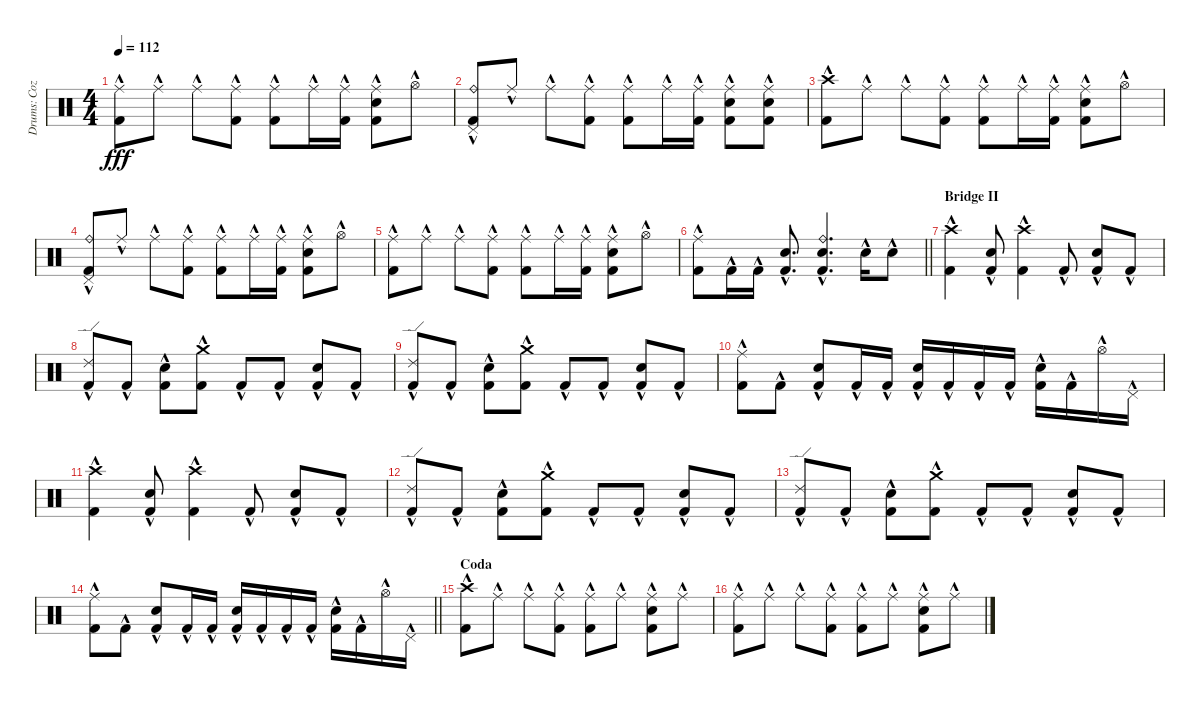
\track ("Drums: Cozy" "Drums: Coz") {instrument percussion}
\staff {score}
\articulation defaults
\ts (4 4)
\tempo 112
\clef neutral
\ks c
("Ride (middle)"{hac} "Kick (hit) 2"{hac}).8{dy fff} "Ride (middle)"{hac}.8 "Ride (middle)"{hac}.8 ("Ride (middle)"{hac} "Kick (hit) 2"{hac}).8 ("Ride (middle)"{hac} "Kick (hit) 2"{hac}).8 "Ride (middle)"{hac}.16 ("Ride (middle)"{hac} "Kick (hit) 2"{hac}).16 ("Ride (middle)"{hac} "Electric Snare (hit)"{hac} "Kick (hit) 2"{hac}).8 "Hi-Hat (open)"{hac}.8 |
("Ride (bell)"{hac} "Pedal Hi-Hat (hit)"{hac} "Kick (hit) 2"{hac}).8 "Ride (middle)"{hac}.8 "Ride (middle)"{hac}.8 ("Ride (middle)"{hac} "Kick (hit) 2"{hac}).8 ("Ride (middle)"{hac} "Kick (hit) 2"{hac}).8 "Ride (middle)"{hac}.16 ("Ride (middle)"{hac} "Kick (hit) 2"{hac}).16 ("Ride (middle)"{hac} "Electric Snare (hit)"{hac} "Kick (hit) 2"{hac}).8 ("Ride (middle)"{hac} "Electric Snare (hit)"{hac} "Kick (hit) 2"{hac}).8 |
("Crash high (hit)"{hac} "Kick (hit) 2"{hac}).8 "Ride (middle)"{hac}.8 "Ride (middle)"{hac}.8 ("Ride (middle)"{hac} "Kick (hit) 2"{hac}).8 ("Ride (middle)"{hac} "Kick (hit) 2"{hac}).8 "Ride (middle)"{hac}.16 ("Ride (middle)"{hac} "Kick (hit) 2"{hac}).16 ("Ride (middle)"{hac} "Electric Snare (hit)"{hac} "Kick (hit) 2"{hac}).8 "Hi-Hat (open)"{hac}.8 |
("Ride (bell)"{hac} "Pedal Hi-Hat (hit)"{hac} "Kick (hit) 2"{hac}).8 "Ride (middle)"{hac}.8 "Ride (middle)"{hac}.8 ("Ride (middle)"{hac} "Kick (hit) 2"{hac}).8 ("Ride (middle)"{hac} "Kick (hit) 2"{hac}).8 "Ride (middle)"{hac}.16 ("Ride (middle)"{hac} "Kick (hit) 2"{hac}).16 ("Ride (middle)"{hac} "Electric Snare (hit)"{hac} "Kick (hit) 2"{hac}).8 "Hi-Hat (open)"{hac}.8 |
("Ride (middle)"{hac} "Kick (hit) 2"{hac}).8 "Ride (middle)"{hac}.8 "Ride (middle)"{hac}.8 ("Ride (middle)"{hac} "Kick (hit) 2"{hac}).8 ("Ride (middle)"{hac} "Kick (hit) 2"{hac}).8 "Ride (middle)"{hac}.16 ("Ride (middle)"{hac} "Kick (hit) 2"{hac}).16 ("Ride (middle)"{hac} "Electric Snare (hit)"{hac} "Kick (hit) 2"{hac}).8 "Hi-Hat (open)"{hac}.8 |
\barLineRight lightlight
("Ride (middle)"{hac} "Kick (hit) 2"{hac}).8 "Kick (hit) 2"{hac}.16 "Kick (hit) 2"{hac}.16 ("Snare (hit) 2"{hac} "Kick (hit) 2"{hac}).8{d} ("Ride (bell)"{hac} "Snare (hit) 2"{hac} "Kick (hit) 2"{hac}).4{d} "Snare (hit) 2"{hac}.16 "Snare (hit) 2"{hac}.8 |
\section ("" "Bridge II")
("Crash high (hit)"{hac} "Kick (hit) 2"{hac}).4 ("Snare (hit) 2"{hac} "Kick (hit) 2"{hac}).8 ("Crash high (hit)"{hac} "Kick (hit) 2"{hac}).4 "Kick (hit) 2"{hac}.8 ("Snare (hit) 2"{hac} "Kick (hit) 2"{hac}).8 "Kick (hit) 2"{hac}.8 |
("Ride (edge) 2"{hac} "Kick (hit) 2"{hac}).8 "Kick (hit) 2"{hac}.8 ("Snare (hit) 2"{hac} "Kick (hit) 2"{hac}).8 ("Crash medium (hit)"{hac} "Kick (hit) 2"{hac}).8 "Kick (hit) 2"{hac}.8 "Kick (hit) 2"{hac}.8 ("Snare (hit) 2"{hac} "Kick (hit) 2"{hac}).8 "Kick (hit) 2"{hac}.8 |
("Ride (edge) 2"{hac} "Kick (hit) 2"{hac}).8 "Kick (hit) 2"{hac}.8 ("Snare (hit) 2"{hac} "Kick (hit) 2"{hac}).8 ("Crash medium (hit)"{hac} "Kick (hit) 2"{hac}).8 "Kick (hit) 2"{hac}.8 "Kick (hit) 2"{hac}.8 ("Snare (hit) 2"{hac} "Kick (hit) 2"{hac}).8 "Kick (hit) 2"{hac}.8 |
("Ride (middle)"{hac} "Kick (hit) 2"{hac}).8 "Kick (hit) 2"{hac}.8 ("Snare (hit) 2"{hac} "Kick (hit) 2"{hac}).8 "Kick (hit) 2"{hac}.16 "Kick (hit) 2"{hac}.16 ("Snare (hit) 2"{hac} "Kick (hit) 2"{hac}).16 "Kick (hit) 2"{hac}.16 "Kick (hit) 2"{hac}.16 "Kick (hit) 2"{hac}.16 ("Snare (hit) 2"{hac} "Kick (hit) 2"{hac}).16 "Kick (hit) 2"{hac}.16 "Hi-Hat (open)"{hac}.16 "Pedal Hi-Hat (hit)"{hac}.16 |
("Crash high (hit)"{hac} "Kick (hit) 2"{hac}).4 ("Snare (hit) 2"{hac} "Kick (hit) 2"{hac}).8 ("Crash high (hit)"{hac} "Kick (hit) 2"{hac}).4 "Kick (hit) 2"{hac}.8 ("Snare (hit) 2"{hac} "Kick (hit) 2"{hac}).8 "Kick (hit) 2"{hac}.8 |
("Ride (edge) 2"{hac} "Kick (hit) 2"{hac}).8 "Kick (hit) 2"{hac}.8 ("Snare (hit) 2"{hac} "Kick (hit) 2"{hac}).8 ("Crash medium (hit)"{hac} "Kick (hit) 2"{hac}).8 "Kick (hit) 2"{hac}.8 "Kick (hit) 2"{hac}.8 ("Snare (hit) 2"{hac} "Kick (hit) 2"{hac}).8 "Kick (hit) 2"{hac}.8 |
("Ride (edge) 2"{hac} "Kick (hit) 2"{hac}).8 "Kick (hit) 2"{hac}.8 ("Snare (hit) 2"{hac} "Kick (hit) 2"{hac}).8 ("Crash medium (hit)"{hac} "Kick (hit) 2"{hac}).8 "Kick (hit) 2"{hac}.8 "Kick (hit) 2"{hac}.8 ("Snare (hit) 2"{hac} "Kick (hit) 2"{hac}).8 "Kick (hit) 2"{hac}.8 |
\barLineRight lightlight
("Ride (middle)"{hac} "Kick (hit) 2"{hac}).8 "Kick (hit) 2"{hac}.8 ("Snare (hit) 2"{hac} "Kick (hit) 2"{hac}).8 "Kick (hit) 2"{hac}.16 "Kick (hit) 2"{hac}.16 ("Snare (hit) 2"{hac} "Kick (hit) 2"{hac}).16 "Kick (hit) 2"{hac}.16 "Kick (hit) 2"{hac}.16 "Kick (hit) 2"{hac}.16 ("Snare (hit) 2"{hac} "Kick (hit) 2"{hac}).16 "Kick (hit) 2"{hac}.16 "Hi-Hat (open)"{hac}.16 "Pedal Hi-Hat (hit)"{hac}.16 |
\section ("" "Coda")
("Crash high (hit)"{hac} "Kick (hit) 2"{hac}).8 "Ride (middle)"{hac}.8 "Ride (middle)"{hac}.8 ("Ride (middle)"{hac} "Kick (hit) 2"{hac}).8 ("Ride (middle)"{hac} "Kick (hit) 2"{hac}).8 "Ride (middle)"{hac}.8 ("Ride (middle)"{hac} "Electric Snare (hit)"{hac} "Kick (hit) 2"{hac}).8 "Ride (middle)"{hac}.8 |
("Ride (middle)"{hac} "Kick (hit) 2"{hac}).8 "Ride (middle)"{hac}.8 "Ride (middle)"{hac}.8 ("Ride (middle)"{hac} "Kick (hit) 2"{hac}).8 ("Ride (middle)"{hac} "Kick (hit) 2"{hac}).8 "Ride (middle)"{hac}.8 ("Ride (middle)"{hac} "Electric Snare (hit)"{hac} "Kick (hit) 2"{hac}).8 "Ride (middle)"{hac}.8
